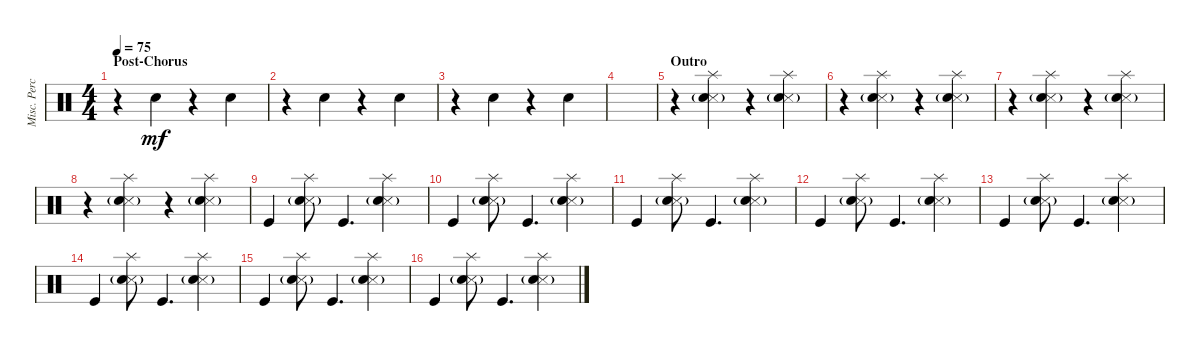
\track ("Misc. Percussion" "Misc. Perc") {instrument percussion}
\staff {score}
\articulation defaults
\ts (4 4)
\section ("" "Post-Chorus")
\tempo 75
\clef neutral
\ks c
r.4{dy mf} "Hand Clap (hit)".4 r.4 "Hand Clap (hit)".4 |
r.4 "Hand Clap (hit)".4 r.4 "Hand Clap (hit)".4 |
r.4 "Hand Clap (hit)".4 r.4 "Hand Clap (hit)".4 |
|
\section ("" "Outro")
r.4 ("Snare (side stick) 3" "Splash (hit)" "Electric Snare (hit)"{g}).4 r.4 ("Snare (side stick) 3" "Splash (hit)" "Electric Snare (hit)"{g}).4 |
r.4 ("Snare (side stick) 3" "Splash (hit)" "Electric Snare (hit)"{g}).4 r.4 ("Snare (side stick) 3" "Splash (hit)" "Electric Snare (hit)"{g}).4 |
r.4 ("Snare (side stick) 3" "Splash (hit)" "Electric Snare (hit)"{g}).4 r.4 ("Snare (side stick) 3" "Splash (hit)" "Electric Snare (hit)"{g}).4 |
r.4 ("Snare (side stick) 3" "Splash (hit)" "Electric Snare (hit)"{g}).4 r.4 ("Snare (side stick) 3" "Splash (hit)" "Electric Snare (hit)"{g}).4 |
"Kick (hit)".4 ("Snare (side stick) 3" "Splash (hit)" "Electric Snare (hit)"{g}).8 "Kick (hit)".4{d} ("Snare (side stick) 3" "Splash (hit)" "Electric Snare (hit)"{g}).4 |
"Kick (hit)".4 ("Snare (side stick) 3" "Splash (hit)" "Electric Snare (hit)"{g}).8 "Kick (hit)".4{d} ("Snare (side stick) 3" "Splash (hit)" "Electric Snare (hit)"{g}).4 |
"Kick (hit)".4 ("Snare (side stick) 3" "Splash (hit)" "Electric Snare (hit)"{g}).8 "Kick (hit)".4{d} ("Snare (side stick) 3" "Splash (hit)" "Electric Snare (hit)"{g}).4 |
"Kick (hit)".4 ("Snare (side stick) 3" "Splash (hit)" "Electric Snare (hit)"{g}).8 "Kick (hit)".4{d} ("Snare (side stick) 3" "Splash (hit)" "Electric Snare (hit)"{g}).4 |
"Kick (hit)".4 ("Snare (side stick) 3" "Splash (hit)" "Electric Snare (hit)"{g}).8 "Kick (hit)".4{d} ("Snare (side stick) 3" "Splash (hit)" "Electric Snare (hit)"{g}).4 |
"Kick (hit)".4 ("Snare (side stick) 3" "Splash (hit)" "Electric Snare (hit)"{g}).8 "Kick (hit)".4{d} ("Snare (side stick) 3" "Splash (hit)" "Electric Snare (hit)"{g}).4 |
"Kick (hit)".4 ("Snare (side stick) 3" "Splash (hit)" "Electric Snare (hit)"{g}).8 "Kick (hit)".4{d} ("Snare (side stick) 3" "Splash (hit)" "Electric Snare (hit)"{g}).4 |
"Kick (hit)".4 ("Snare (side stick) 3" "Splash (hit)" "Electric Snare (hit)"{g}).8 "Kick (hit)".4{d} ("Snare (side stick) 3" "Splash (hit)" "Electric Snare (hit)"{g}).4
